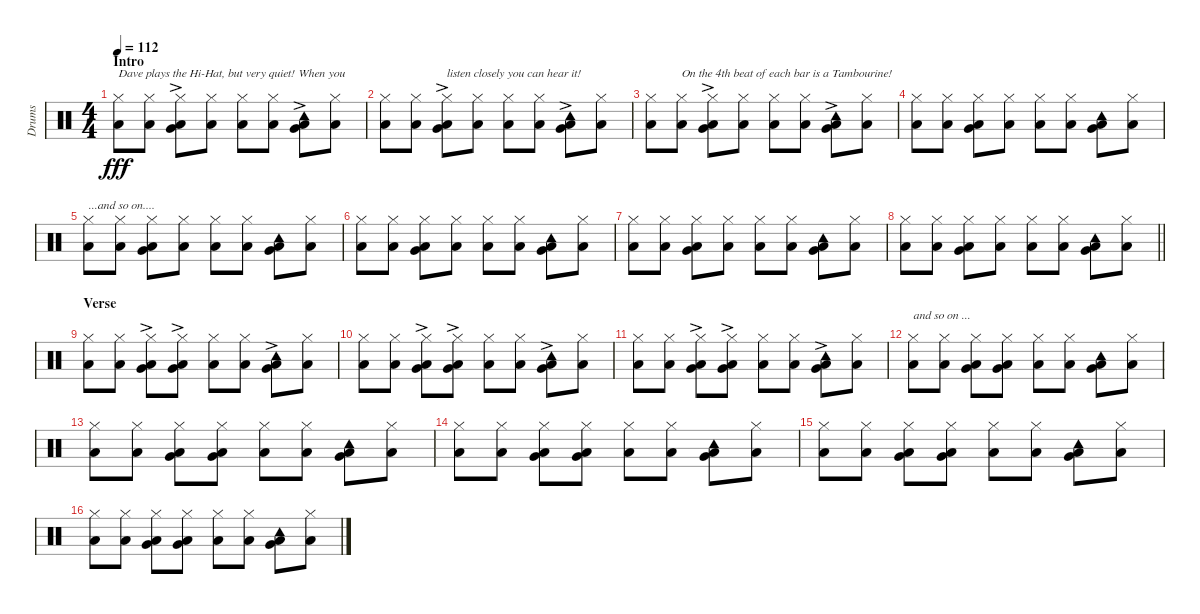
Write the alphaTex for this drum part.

\track ("Drums" "Drums") {instrument percussion}
\staff {score}
\articulation defaults
\ts (4 4)
\section ("" "Intro")
\tempo 112
\clef neutral
\ks c
("Hi-Hat (closed)" "Low Floor Tom (hit)").8{txt "Dave plays the Hi-Hat, but very quiet! When you" dy fff} ("Hi-Hat (closed)" "Low Floor Tom (hit)").8 ("Hi-Hat (closed)" "Very Low Tom (hit)"{ac} "Low Floor Tom (hit)"{ac}).8 ("Hi-Hat (closed)" "Low Floor Tom (hit)").8 ("Hi-Hat (closed)" "Low Floor Tom (hit)").8 ("Hi-Hat (closed)" "Low Floor Tom (hit)").8 ("Tambourine (hit)" "Very Low Tom (hit)"{ac} "Low Floor Tom (hit)"{ac}).8 ("Hi-Hat (closed)" "Low Floor Tom (hit)").8 |
("Hi-Hat (closed)" "Low Floor Tom (hit)").8 ("Hi-Hat (closed)" "Low Floor Tom (hit)").8 ("Hi-Hat (closed)" "Very Low Tom (hit)"{ac} "Low Floor Tom (hit)"{ac}).8{txt "listen closely you can hear it!"} ("Hi-Hat (closed)" "Low Floor Tom (hit)").8 ("Hi-Hat (closed)" "Low Floor Tom (hit)").8 ("Hi-Hat (closed)" "Low Floor Tom (hit)").8 ("Tambourine (hit)" "Very Low Tom (hit)"{ac} "Low Floor Tom (hit)"{ac}).8 ("Hi-Hat (closed)" "Low Floor Tom (hit)").8 |
("Hi-Hat (closed)" "Low Floor Tom (hit)").8 ("Hi-Hat (closed)" "Low Floor Tom (hit)").8{txt "On the 4th beat of each bar is a Tambourine!"} ("Hi-Hat (closed)" "Very Low Tom (hit)"{ac} "Low Floor Tom (hit)"{ac}).8 ("Hi-Hat (closed)" "Low Floor Tom (hit)").8 ("Hi-Hat (closed)" "Low Floor Tom (hit)").8 ("Hi-Hat (closed)" "Low Floor Tom (hit)").8 ("Tambourine (hit)" "Very Low Tom (hit)"{ac} "Low Floor Tom (hit)"{ac}).8 ("Hi-Hat (closed)" "Low Floor Tom (hit)").8 |
("Hi-Hat (closed)" "Low Floor Tom (hit)").8 ("Hi-Hat (closed)" "Low Floor Tom (hit)").8 ("Hi-Hat (closed)" "Very Low Tom (hit)" "Low Floor Tom (hit)").8 ("Hi-Hat (closed)" "Low Floor Tom (hit)").8 ("Hi-Hat (closed)" "Low Floor Tom (hit)").8 ("Hi-Hat (closed)" "Low Floor Tom (hit)").8 ("Tambourine (hit)" "Very Low Tom (hit)" "Low Floor Tom (hit)").8 ("Hi-Hat (closed)" "Low Floor Tom (hit)").8 |
("Hi-Hat (closed)" "Low Floor Tom (hit)").8{txt "...and so on...."} ("Hi-Hat (closed)" "Low Floor Tom (hit)").8 ("Hi-Hat (closed)" "Very Low Tom (hit)" "Low Floor Tom (hit)").8 ("Hi-Hat (closed)" "Low Floor Tom (hit)").8 ("Hi-Hat (closed)" "Low Floor Tom (hit)").8 ("Hi-Hat (closed)" "Low Floor Tom (hit)").8 ("Tambourine (hit)" "Very Low Tom (hit)" "Low Floor Tom (hit)").8 ("Hi-Hat (closed)" "Low Floor Tom (hit)").8 |
("Hi-Hat (closed)" "Low Floor Tom (hit)").8 ("Hi-Hat (closed)" "Low Floor Tom (hit)").8 ("Hi-Hat (closed)" "Very Low Tom (hit)" "Low Floor Tom (hit)").8 ("Hi-Hat (closed)" "Low Floor Tom (hit)").8 ("Hi-Hat (closed)" "Low Floor Tom (hit)").8 ("Hi-Hat (closed)" "Low Floor Tom (hit)").8 ("Tambourine (hit)" "Very Low Tom (hit)" "Low Floor Tom (hit)").8 ("Hi-Hat (closed)" "Low Floor Tom (hit)").8 |
("Hi-Hat (closed)" "Low Floor Tom (hit)").8 ("Hi-Hat (closed)" "Low Floor Tom (hit)").8 ("Hi-Hat (closed)" "Very Low Tom (hit)" "Low Floor Tom (hit)").8 ("Hi-Hat (closed)" "Low Floor Tom (hit)").8 ("Hi-Hat (closed)" "Low Floor Tom (hit)").8 ("Hi-Hat (closed)" "Low Floor Tom (hit)").8 ("Tambourine (hit)" "Very Low Tom (hit)" "Low Floor Tom (hit)").8 ("Hi-Hat (closed)" "Low Floor Tom (hit)").8 |
\barLineRight lightlight
("Hi-Hat (closed)" "Low Floor Tom (hit)").8 ("Hi-Hat (closed)" "Low Floor Tom (hit)").8 ("Hi-Hat (closed)" "Very Low Tom (hit)" "Low Floor Tom (hit)").8 ("Hi-Hat (closed)" "Low Floor Tom (hit)").8 ("Hi-Hat (closed)" "Low Floor Tom (hit)").8 ("Hi-Hat (closed)" "Low Floor Tom (hit)").8 ("Tambourine (hit)" "Very Low Tom (hit)" "Low Floor Tom (hit)").8 ("Hi-Hat (closed)" "Low Floor Tom (hit)").8 |
\section ("" "Verse")
("Hi-Hat (closed)" "Low Floor Tom (hit)").8 ("Hi-Hat (closed)" "Low Floor Tom (hit)").8 ("Hi-Hat (closed)"{ac} "Very Low Tom (hit)"{ac} "Low Floor Tom (hit)"{ac}).8 ("Hi-Hat (closed)"{ac} "Very Low Tom (hit)"{ac} "Low Floor Tom (hit)"{ac}).8 ("Hi-Hat (closed)" "Low Floor Tom (hit)").8 ("Hi-Hat (closed)" "Low Floor Tom (hit)").8 ("Tambourine (hit)"{ac} "Very Low Tom (hit)"{ac} "Low Floor Tom (hit)"{ac}).8 ("Hi-Hat (closed)" "Low Floor Tom (hit)").8 |
("Hi-Hat (closed)" "Low Floor Tom (hit)").8 ("Hi-Hat (closed)" "Low Floor Tom (hit)").8 ("Hi-Hat (closed)"{ac} "Very Low Tom (hit)"{ac} "Low Floor Tom (hit)"{ac}).8 ("Hi-Hat (closed)"{ac} "Very Low Tom (hit)"{ac} "Low Floor Tom (hit)"{ac}).8 ("Hi-Hat (closed)" "Low Floor Tom (hit)").8 ("Hi-Hat (closed)" "Low Floor Tom (hit)").8 ("Tambourine (hit)"{ac} "Very Low Tom (hit)"{ac} "Low Floor Tom (hit)"{ac}).8 ("Hi-Hat (closed)" "Low Floor Tom (hit)").8 |
("Hi-Hat (closed)" "Low Floor Tom (hit)").8 ("Hi-Hat (closed)" "Low Floor Tom (hit)").8 ("Hi-Hat (closed)"{ac} "Very Low Tom (hit)"{ac} "Low Floor Tom (hit)"{ac}).8 ("Hi-Hat (closed)"{ac} "Very Low Tom (hit)"{ac} "Low Floor Tom (hit)"{ac}).8 ("Hi-Hat (closed)" "Low Floor Tom (hit)").8 ("Hi-Hat (closed)" "Low Floor Tom (hit)").8 ("Tambourine (hit)"{ac} "Very Low Tom (hit)"{ac} "Low Floor Tom (hit)"{ac}).8 ("Hi-Hat (closed)" "Low Floor Tom (hit)").8 |
("Hi-Hat (closed)" "Low Floor Tom (hit)").8{txt "and so on ..."} ("Hi-Hat (closed)" "Low Floor Tom (hit)").8 ("Hi-Hat (closed)" "Very Low Tom (hit)" "Low Floor Tom (hit)").8 ("Hi-Hat (closed)" "Very Low Tom (hit)" "Low Floor Tom (hit)").8 ("Hi-Hat (closed)" "Low Floor Tom (hit)").8 ("Hi-Hat (closed)" "Low Floor Tom (hit)").8 ("Tambourine (hit)" "Very Low Tom (hit)" "Low Floor Tom (hit)").8 ("Hi-Hat (closed)" "Low Floor Tom (hit)").8 |
("Hi-Hat (closed)" "Low Floor Tom (hit)").8 ("Hi-Hat (closed)" "Low Floor Tom (hit)").8 ("Hi-Hat (closed)" "Very Low Tom (hit)" "Low Floor Tom (hit)").8 ("Hi-Hat (closed)" "Very Low Tom (hit)" "Low Floor Tom (hit)").8 ("Hi-Hat (closed)" "Low Floor Tom (hit)").8 ("Hi-Hat (closed)" "Low Floor Tom (hit)").8 ("Tambourine (hit)" "Very Low Tom (hit)" "Low Floor Tom (hit)").8 ("Hi-Hat (closed)" "Low Floor Tom (hit)").8 |
("Hi-Hat (closed)" "Low Floor Tom (hit)").8 ("Hi-Hat (closed)" "Low Floor Tom (hit)").8 ("Hi-Hat (closed)" "Very Low Tom (hit)" "Low Floor Tom (hit)").8 ("Hi-Hat (closed)" "Very Low Tom (hit)" "Low Floor Tom (hit)").8 ("Hi-Hat (closed)" "Low Floor Tom (hit)").8 ("Hi-Hat (closed)" "Low Floor Tom (hit)").8 ("Tambourine (hit)" "Very Low Tom (hit)" "Low Floor Tom (hit)").8 ("Hi-Hat (closed)" "Low Floor Tom (hit)").8 |
("Hi-Hat (closed)" "Low Floor Tom (hit)").8 ("Hi-Hat (closed)" "Low Floor Tom (hit)").8 ("Hi-Hat (closed)" "Very Low Tom (hit)" "Low Floor Tom (hit)").8 ("Hi-Hat (closed)" "Very Low Tom (hit)" "Low Floor Tom (hit)").8 ("Hi-Hat (closed)" "Low Floor Tom (hit)").8 ("Hi-Hat (closed)" "Low Floor Tom (hit)").8 ("Tambourine (hit)" "Very Low Tom (hit)" "Low Floor Tom (hit)").8 ("Hi-Hat (closed)" "Low Floor Tom (hit)").8 |
("Hi-Hat (closed)" "Low Floor Tom (hit)").8 ("Hi-Hat (closed)" "Low Floor Tom (hit)").8 ("Hi-Hat (closed)" "Very Low Tom (hit)" "Low Floor Tom (hit)").8 ("Hi-Hat (closed)" "Very Low Tom (hit)" "Low Floor Tom (hit)").8 ("Hi-Hat (closed)" "Low Floor Tom (hit)").8 ("Hi-Hat (closed)" "Low Floor Tom (hit)").8 ("Tambourine (hit)" "Very Low Tom (hit)" "Low Floor Tom (hit)").8 ("Hi-Hat (closed)" "Low Floor Tom (hit)").8
